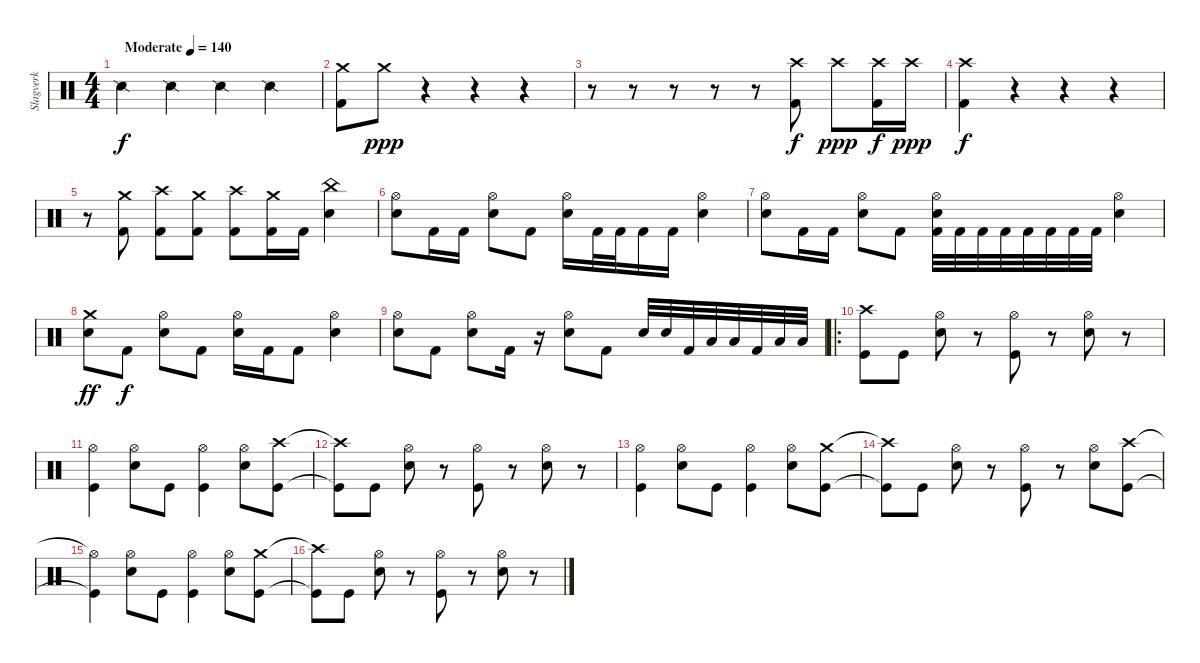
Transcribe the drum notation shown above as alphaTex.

\track ("Slagverk" "Slagverk") {instrument percussion}
\staff {score}
\articulation defaults
\ts (4 4)
\tempo (140 "Moderate")
\clef neutral
\ks c "Snare (side stick) 2".4{dy f} "Snare (side stick) 2".4 "Snare (side stick) 2".4 "Snare (side stick) 2".4
|
("Crash medium (hit)" "Kick (hit) 2").8 "Crash medium (hit)".8{dy ppp} r.4 r.4 r.4 |
r.8 r.8 r.8 r.8 r.8 ("Crash high (hit)" "Kick (hit) 2").8{dy f} "Crash high (hit)".8{dy ppp} ("Crash high (hit)" "Kick (hit) 2").16{dy f} "Crash high (hit)".16{dy ppp} |
("Crash high (hit)" "Kick (hit) 2").4{dy f} r.4 r.4 r.4 |
r.8 ("Crash medium (hit)" "Kick (hit) 2").8 ("Crash high (hit)" "Kick (hit) 2").8 ("Crash medium (hit)" "Kick (hit) 2").8 ("Crash high (hit)" "Kick (hit) 2").8 ("Crash medium (hit)" "Kick (hit) 2").16 "Kick (hit) 2".16 ("China (hit)" "Electric Snare (hit)").4 |
("Hi-Hat (open)" "Electric Snare (hit)").8 "Kick (hit) 2".16 "Kick (hit) 2".16 ("Hi-Hat (open)" "Electric Snare (hit)").8 "Kick (hit) 2".8 ("Hi-Hat (open)" "Electric Snare (hit)").16 "Kick (hit) 2".32 "Kick (hit) 2".32 "Kick (hit) 2".16 "Kick (hit) 2".16 ("Hi-Hat (open)" "Electric Snare (hit)").4 |
("Hi-Hat (open)" "Electric Snare (hit)").8 "Kick (hit) 2".16 "Kick (hit) 2".16 ("Hi-Hat (open)" "Electric Snare (hit)").8 "Kick (hit) 2".8 ("Hi-Hat (open)" "Electric Snare (hit)" "Kick (hit) 2").32 "Kick (hit) 2".32 "Kick (hit) 2".32 "Kick (hit) 2".32 "Kick (hit) 2".32 "Kick (hit) 2".32 "Kick (hit) 2".32 "Kick (hit) 2".32 ("Hi-Hat (open)" "Electric Snare (hit)").4 |
("Crash medium (hit)" "Electric Snare (hit)").8{dy ff} "Kick (hit) 2".8{dy f} ("Hi-Hat (open)" "Electric Snare (hit)").8 "Kick (hit) 2".8 ("Hi-Hat (open)" "Electric Snare (hit)").16 "Kick (hit) 2".16 "Kick (hit) 2".8 ("Hi-Hat (open)" "Electric Snare (hit)").4 |
("Hi-Hat (open)" "Electric Snare (hit)").8 "Kick (hit) 2".8 ("Hi-Hat (open)" "Electric Snare (hit)").8 "Kick (hit) 2".16 r.16 ("Hi-Hat (open)" "Electric Snare (hit)").8 "Kick (hit) 2".8 "Electric Snare (hit)".32 "Electric Snare (hit)".32 "Kick (hit) 2".32 "Low Tom (hit)".32 "Low Tom (hit)".32 "Kick (hit) 2".32 "Low Floor Tom (hit)".32 "Low Floor Tom (hit)".32 |
\ro
("Crash high (hit)" "Kick (hit)").8 "Kick (hit)".8 ("Hi-Hat (open)" "Electric Snare (hit)").8 r.8 ("Hi-Hat (open)" "Kick (hit)").8 r.8 ("Hi-Hat (open)" "Electric Snare (hit)").8 r.8 |
("Hi-Hat (open)" "Kick (hit)").4 ("Hi-Hat (open)" "Electric Snare (hit)").8 "Kick (hit)".8 ("Hi-Hat (open)" "Kick (hit)").4 ("Hi-Hat (open)" "Electric Snare (hit)").8 ("Crash high (hit)" "Kick (hit)").8 |
("Crash high (hit)"{t} "Kick (hit)"{t}).8 "Kick (hit)".8 ("Hi-Hat (open)" "Electric Snare (hit)").8 r.8 ("Hi-Hat (open)" "Kick (hit)").8 r.8 ("Hi-Hat (open)" "Electric Snare (hit)").8 r.8 |
("Hi-Hat (open)" "Kick (hit)").4 ("Hi-Hat (open)" "Electric Snare (hit)").8 "Kick (hit)".8 ("Hi-Hat (open)" "Kick (hit)").4 ("Hi-Hat (open)" "Electric Snare (hit)").8 ("Crash medium (hit)" "Kick (hit)").8 |
("Crash high (hit)"{t} "Kick (hit)"{t}).8 "Kick (hit)".8 ("Hi-Hat (open)" "Electric Snare (hit)").8 r.8 ("Hi-Hat (open)" "Kick (hit)").8 r.8 ("Hi-Hat (open)" "Electric Snare (hit)").8 ("Crash high (hit)" "Kick (hit)").8 |
("Hi-Hat (open)"{t} "Kick (hit)"{t}).4 ("Hi-Hat (open)" "Electric Snare (hit)").8 "Kick (hit)".8 ("Hi-Hat (open)" "Kick (hit)").4 ("Hi-Hat (open)" "Electric Snare (hit)").8 ("Crash medium (hit)" "Kick (hit)").8 |
("Crash high (hit)"{t} "Kick (hit)"{t}).8 "Kick (hit)".8 ("Hi-Hat (open)" "Electric Snare (hit)").8 r.8 ("Hi-Hat (open)" "Kick (hit)").8 r.8 ("Hi-Hat (open)" "Electric Snare (hit)").8 r.8
